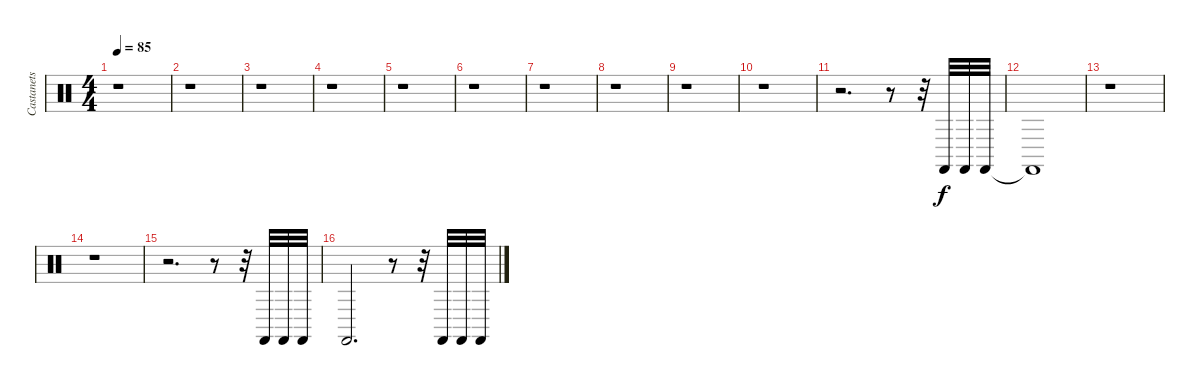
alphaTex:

\track ("Castanets" "Castanets") {instrument percussion}
\staff {score}
\articulation defaults
\ts (4 4)
\tempo 85
\clef neutral
\ks c
r.1{dy f} |
r.1 |
r.1 |
r.1 |
r.1 |
r.1 |
r.1 |
r.1 |
r.1 |
r.1 |
r.2{d} r.8 r.32 "Castanets (hit)".32 "Castanets (hit)".32 "Castanets (hit)".32 |
"Castanets (hit)"{t}.1 |
r.1 |
r.1 |
r.2{d} r.8 r.32 "Castanets (hit)".32 "Castanets (hit)".32 "Castanets (hit)".32 |
"Castanets (hit)".2{d} r.8 r.32 "Castanets (hit)".32 "Castanets (hit)".32 "Castanets (hit)".32
